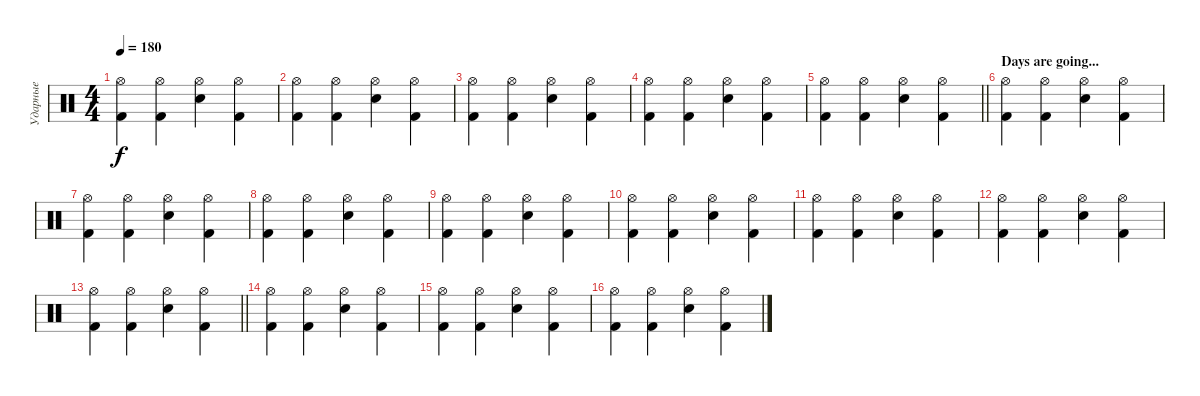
\track ("Ударные" "Ударные") {instrument percussion}
\staff {score}
\articulation defaults
\ts (4 4)
\tempo 180
\clef neutral
\ks c
("Hi-Hat (open)" "Kick (hit) 2").4{dy f} ("Hi-Hat (open)" "Kick (hit) 2").4 ("Electric Snare (hit)" "Hi-Hat (open)").4 ("Hi-Hat (open)" "Kick (hit) 2").4 |
("Hi-Hat (open)" "Kick (hit) 2").4 ("Hi-Hat (open)" "Kick (hit) 2").4 ("Electric Snare (hit)" "Hi-Hat (open)").4 ("Hi-Hat (open)" "Kick (hit) 2").4 |
("Hi-Hat (open)" "Kick (hit) 2").4 ("Hi-Hat (open)" "Kick (hit) 2").4 ("Electric Snare (hit)" "Hi-Hat (open)").4 ("Hi-Hat (open)" "Kick (hit) 2").4 |
("Hi-Hat (open)" "Kick (hit) 2").4 ("Hi-Hat (open)" "Kick (hit) 2").4 ("Electric Snare (hit)" "Hi-Hat (open)").4 ("Hi-Hat (open)" "Kick (hit) 2").4 |
\barLineRight lightlight
("Hi-Hat (open)" "Kick (hit) 2").4 ("Hi-Hat (open)" "Kick (hit) 2").4 ("Electric Snare (hit)" "Hi-Hat (open)").4 ("Hi-Hat (open)" "Kick (hit) 2").4 |
\section ("" "Days are going...")
("Hi-Hat (open)" "Kick (hit) 2").4 ("Hi-Hat (open)" "Kick (hit) 2").4 ("Electric Snare (hit)" "Hi-Hat (open)").4 ("Hi-Hat (open)" "Kick (hit) 2").4 |
("Hi-Hat (open)" "Kick (hit) 2").4 ("Hi-Hat (open)" "Kick (hit) 2").4 ("Electric Snare (hit)" "Hi-Hat (open)").4 ("Hi-Hat (open)" "Kick (hit) 2").4 |
("Hi-Hat (open)" "Kick (hit) 2").4 ("Hi-Hat (open)" "Kick (hit) 2").4 ("Electric Snare (hit)" "Hi-Hat (open)").4 ("Hi-Hat (open)" "Kick (hit) 2").4 |
("Hi-Hat (open)" "Kick (hit) 2").4 ("Hi-Hat (open)" "Kick (hit) 2").4 ("Electric Snare (hit)" "Hi-Hat (open)").4 ("Hi-Hat (open)" "Kick (hit) 2").4 |
("Hi-Hat (open)" "Kick (hit) 2").4 ("Hi-Hat (open)" "Kick (hit) 2").4 ("Electric Snare (hit)" "Hi-Hat (open)").4 ("Hi-Hat (open)" "Kick (hit) 2").4 |
("Hi-Hat (open)" "Kick (hit) 2").4 ("Hi-Hat (open)" "Kick (hit) 2").4 ("Electric Snare (hit)" "Hi-Hat (open)").4 ("Hi-Hat (open)" "Kick (hit) 2").4 |
("Hi-Hat (open)" "Kick (hit) 2").4 ("Hi-Hat (open)" "Kick (hit) 2").4 ("Electric Snare (hit)" "Hi-Hat (open)").4 ("Hi-Hat (open)" "Kick (hit) 2").4 |
\barLineRight lightlight
("Hi-Hat (open)" "Kick (hit) 2").4 ("Hi-Hat (open)" "Kick (hit) 2").4 ("Electric Snare (hit)" "Hi-Hat (open)").4 ("Hi-Hat (open)" "Kick (hit) 2").4 |
("Hi-Hat (open)" "Kick (hit) 2").4 ("Hi-Hat (open)" "Kick (hit) 2").4 ("Electric Snare (hit)" "Hi-Hat (open)").4 ("Hi-Hat (open)" "Kick (hit) 2").4 |
("Hi-Hat (open)" "Kick (hit) 2").4 ("Hi-Hat (open)" "Kick (hit) 2").4 ("Electric Snare (hit)" "Hi-Hat (open)").4 ("Hi-Hat (open)" "Kick (hit) 2").4 |
("Hi-Hat (open)" "Kick (hit) 2").4 ("Hi-Hat (open)" "Kick (hit) 2").4 ("Electric Snare (hit)" "Hi-Hat (open)").4 ("Hi-Hat (open)" "Kick (hit) 2").4
